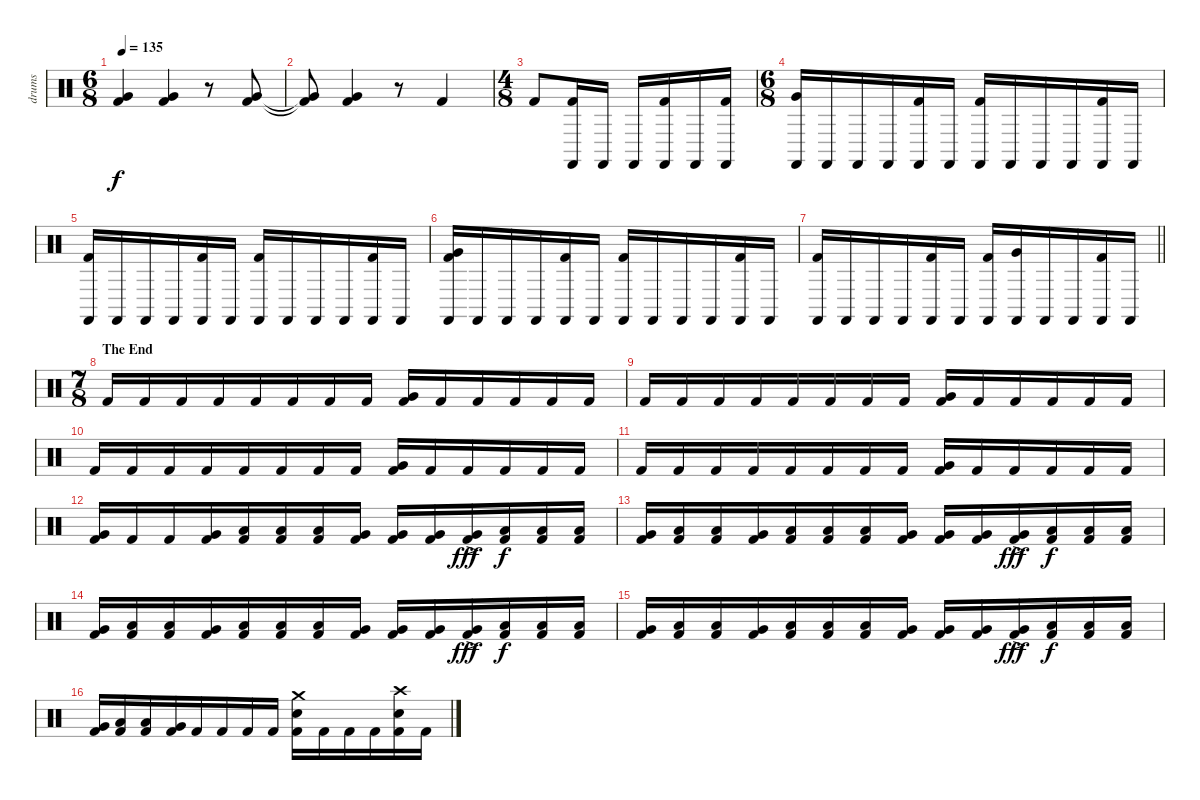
\track ("drums" "drums") {instrument percussion}
\staff {score}
\articulation defaults
\ts (6 8)
\tempo 135
\clef neutral
\ks c
("Kick (hit) 2" "Very Low Tom (hit)").4{dy f} ("Kick (hit) 2" "Very Low Tom (hit)").4 r.8 ("Kick (hit) 2" "Very Low Tom (hit)").8 |
("Kick (hit) 2"{t} "Very Low Tom (hit)"{t}).8 ("Kick (hit) 2" "Very Low Tom (hit)").4 r.8 "Kick (hit) 2".4 |
\ts (4 8)
"Kick (hit) 2".8 ("Castanets (hit)" "Kick (hit) 2").16 "Castanets (hit)".16 "Castanets (hit)".16 ("Castanets (hit)" "Kick (hit) 2").16 "Castanets (hit)".16 ("Castanets (hit)" "Kick (hit) 2").16 |
\ts (6 8)
("Very Low Tom (hit)" "Castanets (hit)").16 "Castanets (hit)".16 "Castanets (hit)".16 "Castanets (hit)".16 ("Castanets (hit)" "Kick (hit) 2").16 "Castanets (hit)".16 ("Castanets (hit)" "Kick (hit) 2").16 "Castanets (hit)".16 "Castanets (hit)".16 "Castanets (hit)".16 ("Castanets (hit)" "Kick (hit) 2").16 "Castanets (hit)".16 |
("Castanets (hit)" "Kick (hit) 2").16 "Castanets (hit)".16 "Castanets (hit)".16 "Castanets (hit)".16 ("Castanets (hit)" "Kick (hit) 2").16 "Castanets (hit)".16 ("Castanets (hit)" "Kick (hit) 2").16 "Castanets (hit)".16 "Castanets (hit)".16 "Castanets (hit)".16 ("Castanets (hit)" "Kick (hit) 2").16 "Castanets (hit)".16 |
("Castanets (hit)" "Kick (hit) 2" "Very Low Tom (hit)").16 "Castanets (hit)".16 "Castanets (hit)".16 "Castanets (hit)".16 ("Castanets (hit)" "Kick (hit) 2").16 "Castanets (hit)".16 ("Castanets (hit)" "Kick (hit) 2").16 "Castanets (hit)".16 "Castanets (hit)".16 "Castanets (hit)".16 ("Castanets (hit)" "Kick (hit) 2").16 "Castanets (hit)".16 |
\barLineRight lightlight
("Castanets (hit)" "Kick (hit) 2").16 "Castanets (hit)".16 "Castanets (hit)".16 "Castanets (hit)".16 ("Castanets (hit)" "Kick (hit) 2").16 "Castanets (hit)".16 ("Castanets (hit)" "Kick (hit) 2").16 ("Castanets (hit)" "Very Low Tom (hit)").16 "Castanets (hit)".16 "Castanets (hit)".16 ("Castanets (hit)" "Kick (hit) 2").16 "Castanets (hit)".16 |
\ts (7 8)
\section ("" "The End")
"Kick (hit) 2".16 "Kick (hit) 2".16 "Kick (hit) 2".16 "Kick (hit) 2".16 "Kick (hit) 2".16 "Kick (hit) 2".16 "Kick (hit) 2".16 "Kick (hit) 2".16 ("Very Low Tom (hit)" "Kick (hit) 2").16 "Kick (hit) 2".16 "Kick (hit) 2".16 "Kick (hit) 2".16 "Kick (hit) 2".16 "Kick (hit) 2".16 |
"Kick (hit) 2".16 "Kick (hit) 2".16 "Kick (hit) 2".16 "Kick (hit) 2".16 "Kick (hit) 2".16 "Kick (hit) 2".16 "Kick (hit) 2".16 "Kick (hit) 2".16 ("Very Low Tom (hit)" "Kick (hit) 2").16 "Kick (hit) 2".16 "Kick (hit) 2".16 "Kick (hit) 2".16 "Kick (hit) 2".16 "Kick (hit) 2".16 |
"Kick (hit) 2".16 "Kick (hit) 2".16 "Kick (hit) 2".16 "Kick (hit) 2".16 "Kick (hit) 2".16 "Kick (hit) 2".16 "Kick (hit) 2".16 "Kick (hit) 2".16 ("Very Low Tom (hit)" "Kick (hit) 2").16 "Kick (hit) 2".16 "Kick (hit) 2".16 "Kick (hit) 2".16 "Kick (hit) 2".16 "Kick (hit) 2".16 |
"Kick (hit) 2".16 "Kick (hit) 2".16 "Kick (hit) 2".16 "Kick (hit) 2".16 "Kick (hit) 2".16 "Kick (hit) 2".16 "Kick (hit) 2".16 "Kick (hit) 2".16 ("Very Low Tom (hit)" "Kick (hit) 2").16 "Kick (hit) 2".16 "Kick (hit) 2".16 "Kick (hit) 2".16 "Kick (hit) 2".16 "Kick (hit) 2".16 |
("Very Low Tom (hit)" "Kick (hit) 2").16 "Kick (hit) 2".16 "Kick (hit) 2".16 ("Very Low Tom (hit)" "Kick (hit) 2").16 ("Low Floor Tom (hit)" "Kick (hit) 2").16 ("Low Tom (hit)" "Kick (hit) 2").16 ("Low Tom (hit)" "Kick (hit) 2").16 ("Very Low Tom (hit)" "Kick (hit) 2").16 ("Very Low Tom (hit)" "Kick (hit) 2").16 ("Very Low Tom (hit)" "Kick (hit) 2").16 ("Very Low Tom (hit)"{ac} "Kick (hit) 2").16{dy fff} ("Low Tom (hit)" "Kick (hit) 2").16{dy f} ("Low Tom (hit)" "Kick (hit) 2").16 ("Low Tom (hit)" "Kick (hit) 2").16 |
("Very Low Tom (hit)" "Kick (hit) 2").16 ("Low Tom (hit)" "Kick (hit) 2").16 ("Low Tom (hit)" "Kick (hit) 2").16 ("Very Low Tom (hit)" "Kick (hit) 2").16 ("Low Floor Tom (hit)" "Kick (hit) 2").16 ("Low Tom (hit)" "Kick (hit) 2").16 ("Low Tom (hit)" "Kick (hit) 2").16 ("Very Low Tom (hit)" "Kick (hit) 2").16 ("Very Low Tom (hit)" "Kick (hit) 2").16 ("Very Low Tom (hit)" "Kick (hit) 2").16 ("Very Low Tom (hit)"{ac} "Kick (hit) 2").16{dy fff} ("Low Tom (hit)" "Kick (hit) 2").16{dy f} ("Low Tom (hit)" "Kick (hit) 2").16 ("Low Tom (hit)" "Kick (hit) 2").16 |
("Very Low Tom (hit)" "Kick (hit) 2").16 ("Low Tom (hit)" "Kick (hit) 2").16 ("Low Tom (hit)" "Kick (hit) 2").16 ("Very Low Tom (hit)" "Kick (hit) 2").16 ("Low Floor Tom (hit)" "Kick (hit) 2").16 ("Low Tom (hit)" "Kick (hit) 2").16 ("Low Tom (hit)" "Kick (hit) 2").16 ("Very Low Tom (hit)" "Kick (hit) 2").16 ("Very Low Tom (hit)" "Kick (hit) 2").16 ("Very Low Tom (hit)" "Kick (hit) 2").16 ("Very Low Tom (hit)"{ac} "Kick (hit) 2").16{dy fff} ("Low Tom (hit)" "Kick (hit) 2").16{dy f} ("Low Tom (hit)" "Kick (hit) 2").16 ("Low Tom (hit)" "Kick (hit) 2").16 |
("Very Low Tom (hit)" "Kick (hit) 2").16 ("Low Tom (hit)" "Kick (hit) 2").16 ("Low Tom (hit)" "Kick (hit) 2").16 ("Very Low Tom (hit)" "Kick (hit) 2").16 ("Low Floor Tom (hit)" "Kick (hit) 2").16 ("Low Tom (hit)" "Kick (hit) 2").16 ("Low Tom (hit)" "Kick (hit) 2").16 ("Very Low Tom (hit)" "Kick (hit) 2").16 ("Very Low Tom (hit)" "Kick (hit) 2").16 ("Very Low Tom (hit)" "Kick (hit) 2").16 ("Very Low Tom (hit)"{ac} "Kick (hit) 2").16{dy fff} ("Low Tom (hit)" "Kick (hit) 2").16{dy f} ("Low Tom (hit)" "Kick (hit) 2").16 ("Low Tom (hit)" "Kick (hit) 2").16 |
("Very Low Tom (hit)" "Kick (hit) 2").16 ("Low Tom (hit)" "Kick (hit) 2").16 ("Low Tom (hit)" "Kick (hit) 2").16 ("Very Low Tom (hit)" "Kick (hit) 2").16 "Kick (hit) 2".16 "Kick (hit) 2".16 "Kick (hit) 2".16 "Kick (hit) 2".16 ("Crash medium (hit)" "Electric Snare (hit)" "Kick (hit) 2").16 "Kick (hit) 2".16 "Kick (hit) 2".16 "Kick (hit) 2".16 ("Crash high (hit)" "Electric Snare (hit)" "Kick (hit) 2").16 "Kick (hit) 2".16
